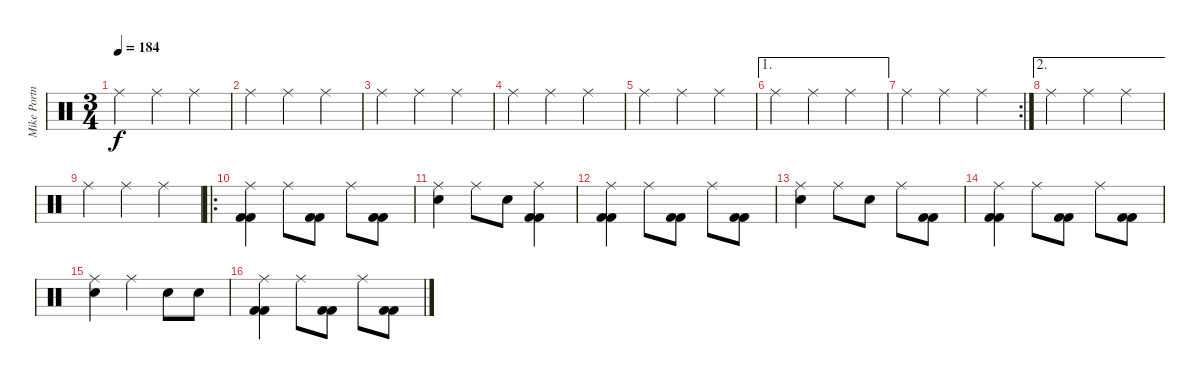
\track ("Mike Portnoy - Drum" "Mike Portn") {instrument percussion}
\staff {score}
\articulation defaults
\ts (3 4)
\tempo 184
\clef neutral
\ks c "Ride (middle)".4{dy f} "Ride (middle)".4 "Ride (middle)".4
|
"Ride (middle)".4 "Ride (middle)".4 "Ride (middle)".4 |
"Ride (middle)".4 "Ride (middle)".4 "Ride (middle)".4 |
"Ride (middle)".4 "Ride (middle)".4 "Ride (middle)".4 |
"Ride (middle)".4 "Ride (middle)".4 "Ride (middle)".4 |
\ae 1 "Ride (middle)".4 "Ride (middle)".4 "Ride (middle)".4
|
\rc 2 "Ride (middle)".4 "Ride (middle)".4 "Ride (middle)".4
|
\ae 2 "Ride (middle)".4 "Ride (middle)".4 "Ride (middle)".4
|
"Ride (middle)".4 "Ride (middle)".4 "Ride (middle)".4 |
\ro
("Ride (middle)" "Kick (hit) 2" "Kick (hit) 2").4 "Ride (middle)".8 ("Kick (hit) 2" "Kick (hit) 2").8 "Ride (middle)".8 ("Kick (hit) 2" "Kick (hit) 2").8 |
("Ride (middle)" "Snare (hit) 2").4 "Ride (middle)".8 "Snare (hit) 2".8 ("Ride (middle)" "Kick (hit) 2" "Kick (hit) 2").4 |
("Ride (middle)" "Kick (hit) 2" "Kick (hit) 2").4 "Ride (middle)".8 ("Kick (hit) 2" "Kick (hit) 2").8 "Ride (middle)".8 ("Kick (hit) 2" "Kick (hit) 2").8 |
("Ride (middle)" "Snare (hit) 2").4 "Ride (middle)".8 "Snare (hit) 2".8 "Ride (middle)".8 ("Kick (hit) 2" "Kick (hit) 2").8 |
("Ride (middle)" "Kick (hit) 2" "Kick (hit) 2").4 "Ride (middle)".8 ("Kick (hit) 2" "Kick (hit) 2").8 "Ride (middle)".8 ("Kick (hit) 2" "Kick (hit) 2").8 |
("Ride (middle)" "Snare (hit) 2").4 "Ride (middle)".4 "Snare (hit) 2".8 "Snare (hit) 2".8 |
("Ride (middle)" "Kick (hit) 2" "Kick (hit) 2").4 "Ride (middle)".8 ("Kick (hit) 2" "Kick (hit) 2").8 "Ride (middle)".8 ("Kick (hit) 2" "Kick (hit) 2").8
